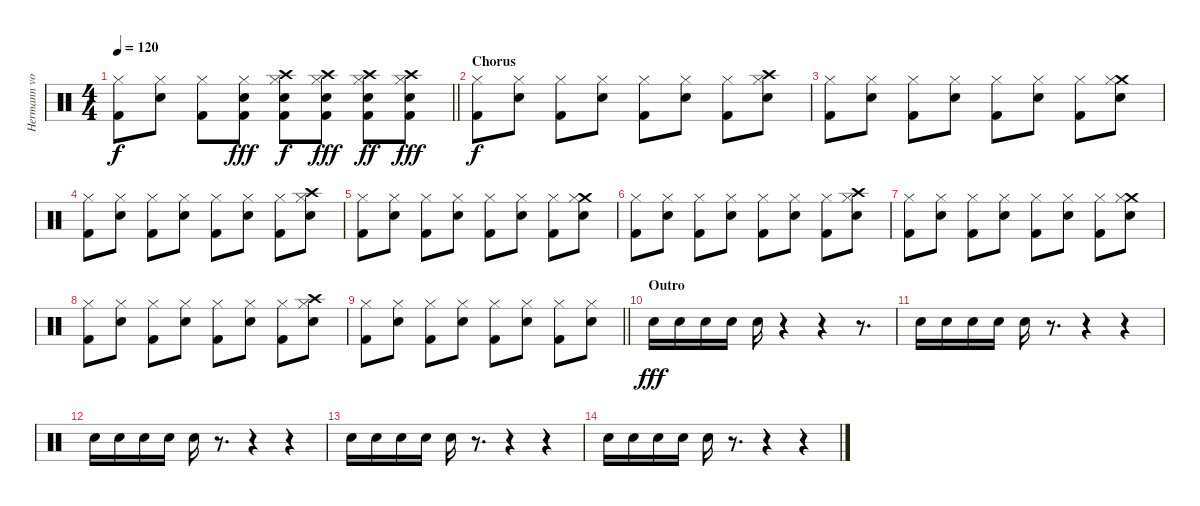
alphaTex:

\track ("Hermann von Hinten (Drums)" "Hermann vo") {instrument percussion}
\staff {score}
\articulation defaults
\ts (4 4)
\tempo 120
\clef neutral
\barLineRight lightlight
\ks c
("Hi-Hat (closed)" "Kick (hit) 2").8{dy f} ("Hi-Hat (closed)" "Snare (hit) 2").8 ("Hi-Hat (closed)" "Kick (hit) 2").8 ("Snare (hit) 2" "Hi-Hat (closed)" "Kick (hit) 2").8{dy fff} ("Crash high (hit)" "Snare (hit) 2" "Hi-Hat (closed)" "Kick (hit) 2").8{dy f} ("Crash high (hit)" "Snare (hit) 2" "Hi-Hat (closed)" "Kick (hit) 2").8{dy fff} ("Crash high (hit)" "Snare (hit) 2" "Hi-Hat (closed)" "Kick (hit) 2").8{dy ff} ("Crash high (hit)" "Snare (hit) 2" "Hi-Hat (closed)" "Kick (hit) 2").8{dy fff} |
\section ("" "Chorus")
("Hi-Hat (closed)" "Kick (hit) 2").8{dy f} ("Hi-Hat (closed)" "Snare (hit) 2").8 ("Hi-Hat (closed)" "Kick (hit) 2").8 ("Hi-Hat (closed)" "Snare (hit) 2").8 ("Hi-Hat (closed)" "Kick (hit) 2").8 ("Hi-Hat (closed)" "Snare (hit) 2").8 ("Hi-Hat (closed)" "Kick (hit) 2").8 ("Crash high (hit)" "Hi-Hat (closed)" "Snare (hit) 2").8 |
("Hi-Hat (closed)" "Kick (hit) 2").8 ("Hi-Hat (closed)" "Snare (hit) 2").8 ("Hi-Hat (closed)" "Kick (hit) 2").8 ("Hi-Hat (closed)" "Snare (hit) 2").8 ("Hi-Hat (closed)" "Kick (hit) 2").8 ("Hi-Hat (closed)" "Snare (hit) 2").8 ("Hi-Hat (closed)" "Kick (hit) 2").8 ("Crash medium (hit)" "Hi-Hat (closed)" "Snare (hit) 2").8 |
("Hi-Hat (closed)" "Kick (hit) 2").8 ("Hi-Hat (closed)" "Snare (hit) 2").8 ("Hi-Hat (closed)" "Kick (hit) 2").8 ("Hi-Hat (closed)" "Snare (hit) 2").8 ("Hi-Hat (closed)" "Kick (hit) 2").8 ("Hi-Hat (closed)" "Snare (hit) 2").8 ("Hi-Hat (closed)" "Kick (hit) 2").8 ("Crash high (hit)" "Hi-Hat (closed)" "Snare (hit) 2").8 |
("Hi-Hat (closed)" "Kick (hit) 2").8 ("Hi-Hat (closed)" "Snare (hit) 2").8 ("Hi-Hat (closed)" "Kick (hit) 2").8 ("Hi-Hat (closed)" "Snare (hit) 2").8 ("Hi-Hat (closed)" "Kick (hit) 2").8 ("Hi-Hat (closed)" "Snare (hit) 2").8 ("Hi-Hat (closed)" "Kick (hit) 2").8 ("Crash medium (hit)" "Hi-Hat (closed)" "Snare (hit) 2").8 |
("Hi-Hat (closed)" "Kick (hit) 2").8 ("Hi-Hat (closed)" "Snare (hit) 2").8 ("Hi-Hat (closed)" "Kick (hit) 2").8 ("Hi-Hat (closed)" "Snare (hit) 2").8 ("Hi-Hat (closed)" "Kick (hit) 2").8 ("Hi-Hat (closed)" "Snare (hit) 2").8 ("Hi-Hat (closed)" "Kick (hit) 2").8 ("Crash high (hit)" "Hi-Hat (closed)" "Snare (hit) 2").8 |
("Hi-Hat (closed)" "Kick (hit) 2").8 ("Hi-Hat (closed)" "Snare (hit) 2").8 ("Hi-Hat (closed)" "Kick (hit) 2").8 ("Hi-Hat (closed)" "Snare (hit) 2").8 ("Hi-Hat (closed)" "Kick (hit) 2").8 ("Hi-Hat (closed)" "Snare (hit) 2").8 ("Hi-Hat (closed)" "Kick (hit) 2").8 ("Crash medium (hit)" "Hi-Hat (closed)" "Snare (hit) 2").8 |
("Hi-Hat (closed)" "Kick (hit) 2").8 ("Hi-Hat (closed)" "Snare (hit) 2").8 ("Hi-Hat (closed)" "Kick (hit) 2").8 ("Hi-Hat (closed)" "Snare (hit) 2").8 ("Hi-Hat (closed)" "Kick (hit) 2").8 ("Hi-Hat (closed)" "Snare (hit) 2").8 ("Hi-Hat (closed)" "Kick (hit) 2").8 ("Crash high (hit)" "Hi-Hat (closed)" "Snare (hit) 2").8 |
\barLineRight lightlight
("Hi-Hat (closed)" "Kick (hit) 2").8 ("Hi-Hat (closed)" "Snare (hit) 2").8 ("Hi-Hat (closed)" "Kick (hit) 2").8 ("Hi-Hat (closed)" "Snare (hit) 2").8 ("Hi-Hat (closed)" "Kick (hit) 2").8 ("Hi-Hat (closed)" "Snare (hit) 2").8 ("Hi-Hat (closed)" "Kick (hit) 2").8 ("Hi-Hat (closed)" "Snare (hit) 2").8 |
\section ("" "Outro")
"Snare (hit) 2".16{dy fff} "Snare (hit) 2".16 "Snare (hit) 2".16 "Snare (hit) 2".16 "Snare (hit) 2".16 r.4 r.4 r.8{d} |
"Snare (hit) 2".16 "Snare (hit) 2".16 "Snare (hit) 2".16 "Snare (hit) 2".16 "Snare (hit) 2".16 r.8{d} r.4 r.4 |
"Snare (hit) 2".16 "Snare (hit) 2".16 "Snare (hit) 2".16 "Snare (hit) 2".16 "Snare (hit) 2".16 r.8{d} r.4 r.4 |
"Snare (hit) 2".16 "Snare (hit) 2".16 "Snare (hit) 2".16 "Snare (hit) 2".16 "Snare (hit) 2".16 r.8{d} r.4 r.4 |
"Snare (hit) 2".16 "Snare (hit) 2".16 "Snare (hit) 2".16 "Snare (hit) 2".16 "Snare (hit) 2".16 r.8{d} r.4 r.4
